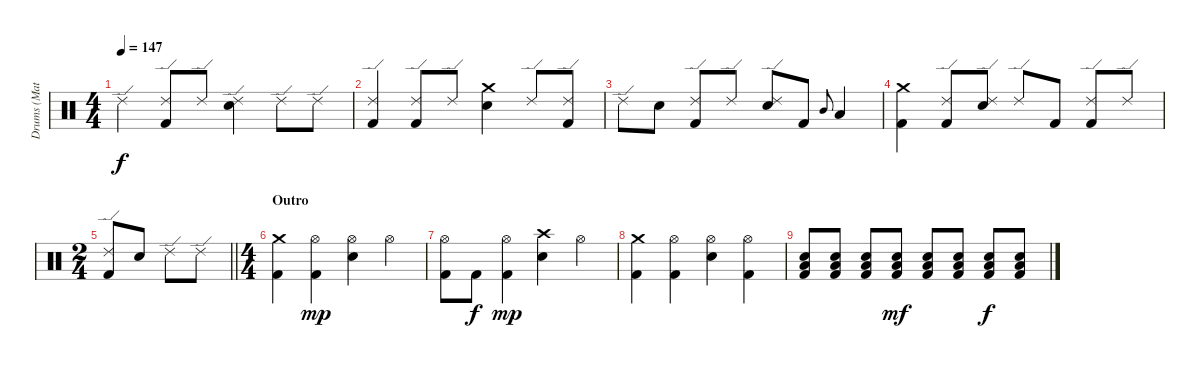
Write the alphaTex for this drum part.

\track ("Drums (Matt Laug)" "Drums (Mat") {instrument percussion}
\staff {score}
\articulation defaults
\ts (4 4)
\tempo 147
\clef neutral
\ks c "Ride (edge) 2".4{dy f}
("Ride (edge) 2" "Kick (hit) 2").8 "Ride (edge) 2".8 ("Ride (edge) 2" "Electric Snare (hit)").4 "Ride (edge) 2".8 "Ride (edge) 2".8 |
("Ride (edge) 2" "Kick (hit) 2").4 ("Ride (edge) 2" "Kick (hit) 2").8 "Ride (edge) 2".8 ("Crash medium (hit)" "Electric Snare (hit)").4 "Ride (edge) 2".8 ("Ride (edge) 2" "Kick (hit) 2").8 |
"Ride (edge) 2".8 "Electric Snare (hit)".8 ("Ride (edge) 2" "Kick (hit) 2").8 "Ride (edge) 2".8 ("Ride (edge) 2" "Electric Snare (hit)").8 "Kick (hit) 2".8 "Mid Tom (hit)".8{gr onbeat} "Low Tom (hit)".4 |
("Crash medium (hit)" "Kick (hit) 2").4 ("Ride (edge) 2" "Kick (hit) 2").8 ("Ride (edge) 2" "Electric Snare (hit)").8 "Ride (edge) 2".8 "Kick (hit) 2".8 ("Ride (edge) 2" "Kick (hit) 2").8 "Ride (edge) 2".8 |
\ts (2 4)
\barLineRight lightlight
("Ride (edge) 2" "Kick (hit) 2").8 "Electric Snare (hit)".8 "Ride (edge) 2".8 "Ride (edge) 2".8 |
\ts (4 4)
\section ("" "Outro")
("Crash medium (hit)" "Kick (hit) 2").4 ("Hi-Hat (open)" "Kick (hit) 2").4{dy mp} ("Hi-Hat (open)" "Electric Snare (hit)").4 "Hi-Hat (open)".4 |
("Hi-Hat (open)" "Kick (hit) 2").8 "Kick (hit) 2".8{dy f} ("Hi-Hat (open)" "Kick (hit) 2").4{dy mp} ("Crash high (hit)" "Electric Snare (hit)").4 "Hi-Hat (open)".4 |
("Crash medium (hit)" "Kick (hit) 2").4 ("Hi-Hat (open)" "Kick (hit) 2").4 ("Hi-Hat (open)" "Electric Snare (hit)").4 ("Hi-Hat (open)" "Kick (hit) 2").4 |
("Electric Snare (hit)" "Low Floor Tom (hit)" "Kick (hit) 2").8 ("Electric Snare (hit)" "Low Floor Tom (hit)" "Kick (hit) 2").8 ("Electric Snare (hit)" "Low Floor Tom (hit)" "Kick (hit) 2").8 ("Electric Snare (hit)" "Low Floor Tom (hit)" "Kick (hit) 2").8{dy mf} ("Electric Snare (hit)" "Low Floor Tom (hit)" "Kick (hit) 2").8 ("Electric Snare (hit)" "Low Floor Tom (hit)" "Kick (hit) 2").8 ("Electric Snare (hit)" "Low Floor Tom (hit)" "Kick (hit) 2").8{dy f} ("Electric Snare (hit)" "Low Floor Tom (hit)" "Kick (hit) 2").8
